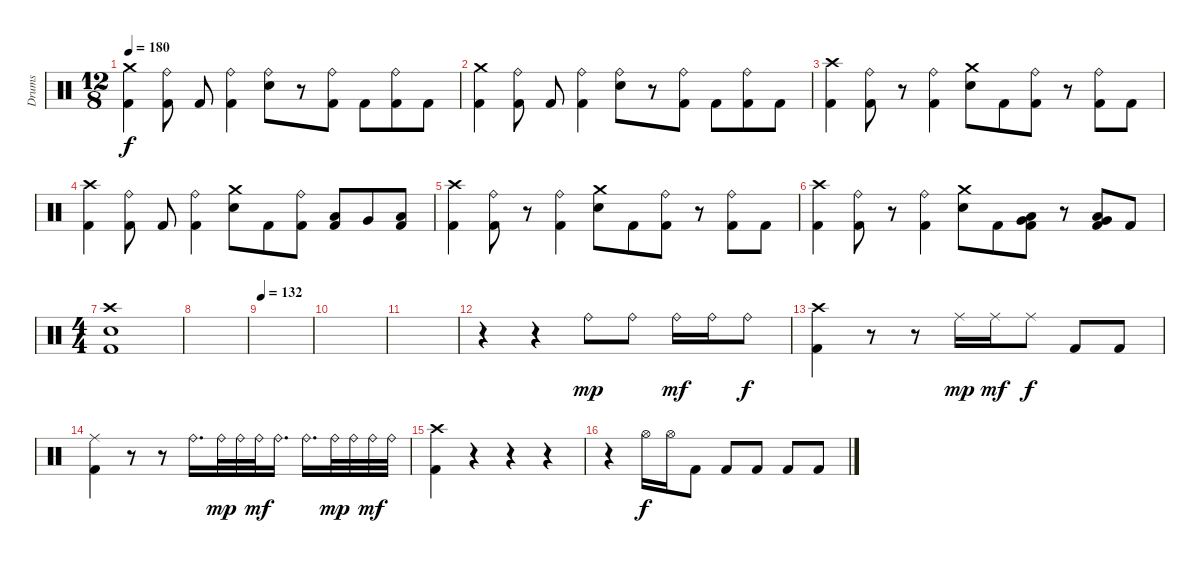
\track ("Drums" "Drums") {instrument percussion}
\staff {score}
\articulation defaults
\ts (12 8)
\tempo 180
\clef neutral
\ks c
("Crash medium (hit)" "Kick (hit) 2").4{dy f} ("Ride (bell)" "Kick (hit) 2").8 "Kick (hit) 2".8 ("Ride (bell)" "Kick (hit) 2").4 ("Ride (bell)" "Electric Snare (hit)").8 r.8 ("Ride (bell)" "Kick (hit) 2").8 "Kick (hit) 2".8 ("Ride (bell)" "Kick (hit) 2").8 "Kick (hit) 2".8 |
("Crash medium (hit)" "Kick (hit) 2").4 ("Ride (bell)" "Kick (hit) 2").8 "Kick (hit) 2".8 ("Ride (bell)" "Kick (hit) 2").4 ("Ride (bell)" "Electric Snare (hit)").8 r.8 ("Ride (bell)" "Kick (hit) 2").8 "Kick (hit) 2".8 ("Ride (bell)" "Kick (hit) 2").8 "Kick (hit) 2".8 |
("Crash high (hit)" "Kick (hit) 2").4 ("Ride (bell)" "Kick (hit) 2").8 r.8 ("Ride (bell)" "Kick (hit) 2").4 ("Crash medium (hit)" "Electric Snare (hit)").8 "Kick (hit) 2".8 ("Ride (bell)" "Kick (hit) 2").8 r.8 ("Ride (bell)" "Kick (hit) 2").8 "Kick (hit) 2".8 |
("Crash high (hit)" "Kick (hit) 2").4 ("Ride (bell)" "Kick (hit) 2").8 "Kick (hit) 2".8 ("Ride (bell)" "Kick (hit) 2").4 ("Crash medium (hit)" "Electric Snare (hit)").8 "Kick (hit) 2".8 ("Ride (bell)" "Kick (hit) 2").8 ("Low Tom (hit)" "Kick (hit) 2").8 "Very Low Tom (hit)".8 ("Low Floor Tom (hit)" "Kick (hit) 2").8 |
("Crash high (hit)" "Kick (hit) 2").4 ("Ride (bell)" "Kick (hit) 2").8 r.8 ("Ride (bell)" "Kick (hit) 2").4 ("Crash medium (hit)" "Electric Snare (hit)").8 "Kick (hit) 2".8 ("Ride (bell)" "Kick (hit) 2").8 r.8 ("Ride (bell)" "Kick (hit) 2").8 "Kick (hit) 2".8 |
("Crash high (hit)" "Kick (hit) 2").4 ("Ride (bell)" "Kick (hit) 2").8 r.8 ("Ride (bell)" "Kick (hit) 2").4 ("Crash medium (hit)" "Electric Snare (hit)").8 "Kick (hit) 2".8 ("Low Tom (hit)" "Very Low Tom (hit)" "Kick (hit) 2").8 r.8 ("Very Low Tom (hit)" "Low Floor Tom (hit)" "Kick (hit) 2").8 "Kick (hit) 2".8 |
\ts (4 4)
("Crash high (hit)" "Electric Snare (hit)" "Kick (hit) 2").1 |
|
\tempo 132
|
|
|
r.4 r.4 "Ride (bell)".8{dy mp} "Ride (bell)".8 "Ride (bell)".16{dy mf} "Ride (bell)".16 "Ride (bell)".8{dy f} |
("Crash high (hit)" "Kick (hit) 2").4 r.8 r.8 "Ride (middle)".16{dy mp} "Ride (middle)".16{dy mf} "Ride (middle)".8{dy f} "Kick (hit) 2".8 "Kick (hit) 2".8 |
("Ride (middle)" "Kick (hit) 2").4 r.8 r.8 "Ride (bell)".16{d} "Ride (bell)".32{dy mp} "Ride (bell)".32 "Ride (bell)".32{dy mf} "Ride (bell)".16{d} "Ride (bell)".16{d} "Ride (bell)".32{dy mp} "Ride (bell)".32 "Ride (bell)".32{dy mf} "Ride (bell)".32 |
("Crash high (hit)" "Kick (hit) 2").4 r.4 r.4 r.4 |
r.4 "Hi-Hat (open)".16{dy f} "Hi-Hat (open)".16 "Kick (hit) 2".8 "Kick (hit) 2".8 "Kick (hit) 2".8 "Kick (hit) 2".8 "Kick (hit) 2".8
